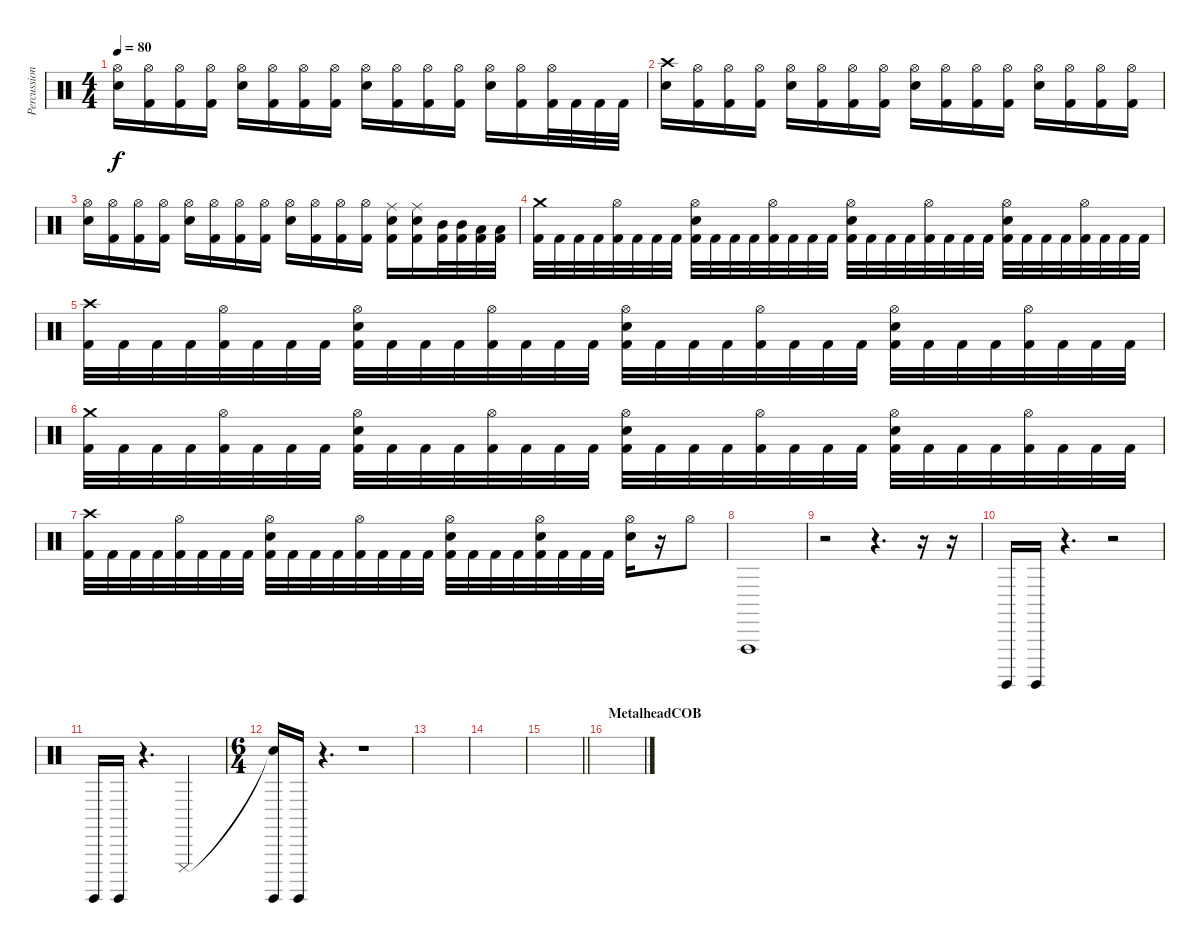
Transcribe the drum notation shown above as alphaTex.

\track ("Percussion" "Percussion") {instrument percussion}
\staff {score}
\articulation defaults
\ts (4 4)
\tempo 80
\clef neutral
\ks c
("Hi-Hat (open)" "Electric Snare (hit)").16{dy f} ("Hi-Hat (open)" "Kick (hit) 2").16 ("Hi-Hat (open)" "Kick (hit) 2").16 ("Hi-Hat (open)" "Kick (hit) 2").16 ("Hi-Hat (open)" "Electric Snare (hit)").16 ("Hi-Hat (open)" "Kick (hit) 2").16 ("Hi-Hat (open)" "Kick (hit) 2").16 ("Hi-Hat (open)" "Kick (hit) 2").16 ("Hi-Hat (open)" "Electric Snare (hit)").16 ("Hi-Hat (open)" "Kick (hit) 2").16 ("Hi-Hat (open)" "Kick (hit) 2").16 ("Hi-Hat (open)" "Kick (hit) 2").16 ("Hi-Hat (open)" "Electric Snare (hit)").16 ("Hi-Hat (open)" "Kick (hit) 2").16 ("Hi-Hat (open)" "Kick (hit) 2").32 "Kick (hit) 2".32 "Kick (hit) 2".32 "Kick (hit) 2".32 |
("Crash high (hit)" "Electric Snare (hit)").16 ("Hi-Hat (open)" "Kick (hit) 2").16 ("Hi-Hat (open)" "Kick (hit) 2").16 ("Hi-Hat (open)" "Kick (hit) 2").16 ("Hi-Hat (open)" "Electric Snare (hit)").16 ("Hi-Hat (open)" "Kick (hit) 2").16 ("Hi-Hat (open)" "Kick (hit) 2").16 ("Hi-Hat (open)" "Kick (hit) 2").16 ("Hi-Hat (open)" "Electric Snare (hit)").16 ("Hi-Hat (open)" "Kick (hit) 2").16 ("Hi-Hat (open)" "Kick (hit) 2").16 ("Hi-Hat (open)" "Kick (hit) 2").16 ("Hi-Hat (open)" "Electric Snare (hit)").16 ("Hi-Hat (open)" "Kick (hit) 2").16 ("Hi-Hat (open)" "Kick (hit) 2").16 ("Hi-Hat (open)" "Kick (hit) 2").16 |
("Hi-Hat (open)" "Electric Snare (hit)").16 ("Hi-Hat (open)" "Kick (hit) 2").16 ("Hi-Hat (open)" "Kick (hit) 2").16 ("Hi-Hat (open)" "Kick (hit) 2").16 ("Hi-Hat (open)" "Electric Snare (hit)").16 ("Hi-Hat (open)" "Kick (hit) 2").16 ("Hi-Hat (open)" "Kick (hit) 2").16 ("Hi-Hat (open)" "Kick (hit) 2").16 ("Hi-Hat (open)" "Electric Snare (hit)").16 ("Hi-Hat (open)" "Kick (hit) 2").16 ("Hi-Hat (open)" "Kick (hit) 2").16 ("Hi-Hat (open)" "Kick (hit) 2").16 ("Ride (middle)" "Electric Snare (hit)" "Kick (hit) 2").16 ("Ride (middle)" "Electric Snare (hit)" "Kick (hit) 2").16 ("Mid Tom (hit)" "Kick (hit) 2").32 ("Mid Tom (hit)" "Kick (hit) 2").32 ("Low Tom (hit)" "Kick (hit) 2").32 ("Low Tom (hit)" "Kick (hit) 2").32 |
("Crash medium (hit)" "Kick (hit) 2").32 "Kick (hit) 2".32 "Kick (hit) 2".32 "Kick (hit) 2".32 ("Hi-Hat (open)" "Kick (hit) 2").32 "Kick (hit) 2".32 "Kick (hit) 2".32 "Kick (hit) 2".32 ("Hi-Hat (open)" "Electric Snare (hit)" "Kick (hit) 2").32 "Kick (hit) 2".32 "Kick (hit) 2".32 "Kick (hit) 2".32 ("Hi-Hat (open)" "Kick (hit) 2").32 "Kick (hit) 2".32 "Kick (hit) 2".32 "Kick (hit) 2".32 ("Hi-Hat (open)" "Electric Snare (hit)" "Kick (hit) 2").32 "Kick (hit) 2".32 "Kick (hit) 2".32 "Kick (hit) 2".32 ("Hi-Hat (open)" "Kick (hit) 2").32 "Kick (hit) 2".32 "Kick (hit) 2".32 "Kick (hit) 2".32 ("Hi-Hat (open)" "Electric Snare (hit)" "Kick (hit) 2").32 "Kick (hit) 2".32 "Kick (hit) 2".32 "Kick (hit) 2".32 ("Hi-Hat (open)" "Kick (hit) 2").32 "Kick (hit) 2".32 "Kick (hit) 2".32 "Kick (hit) 2".32 |
("Crash high (hit)" "Kick (hit) 2").32 "Kick (hit) 2".32 "Kick (hit) 2".32 "Kick (hit) 2".32 ("Hi-Hat (open)" "Kick (hit) 2").32 "Kick (hit) 2".32 "Kick (hit) 2".32 "Kick (hit) 2".32 ("Hi-Hat (open)" "Electric Snare (hit)" "Kick (hit) 2").32 "Kick (hit) 2".32 "Kick (hit) 2".32 "Kick (hit) 2".32 ("Hi-Hat (open)" "Kick (hit) 2").32 "Kick (hit) 2".32 "Kick (hit) 2".32 "Kick (hit) 2".32 ("Hi-Hat (open)" "Electric Snare (hit)" "Kick (hit) 2").32 "Kick (hit) 2".32 "Kick (hit) 2".32 "Kick (hit) 2".32 ("Hi-Hat (open)" "Kick (hit) 2").32 "Kick (hit) 2".32 "Kick (hit) 2".32 "Kick (hit) 2".32 ("Hi-Hat (open)" "Electric Snare (hit)" "Kick (hit) 2").32 "Kick (hit) 2".32 "Kick (hit) 2".32 "Kick (hit) 2".32 ("Hi-Hat (open)" "Kick (hit) 2").32 "Kick (hit) 2".32 "Kick (hit) 2".32 "Kick (hit) 2".32 |
("Crash medium (hit)" "Kick (hit) 2").32 "Kick (hit) 2".32 "Kick (hit) 2".32 "Kick (hit) 2".32 ("Hi-Hat (open)" "Kick (hit) 2").32 "Kick (hit) 2".32 "Kick (hit) 2".32 "Kick (hit) 2".32 ("Hi-Hat (open)" "Electric Snare (hit)" "Kick (hit) 2").32 "Kick (hit) 2".32 "Kick (hit) 2".32 "Kick (hit) 2".32 ("Hi-Hat (open)" "Kick (hit) 2").32 "Kick (hit) 2".32 "Kick (hit) 2".32 "Kick (hit) 2".32 ("Hi-Hat (open)" "Electric Snare (hit)" "Kick (hit) 2").32 "Kick (hit) 2".32 "Kick (hit) 2".32 "Kick (hit) 2".32 ("Hi-Hat (open)" "Kick (hit) 2").32 "Kick (hit) 2".32 "Kick (hit) 2".32 "Kick (hit) 2".32 ("Hi-Hat (open)" "Electric Snare (hit)" "Kick (hit) 2").32 "Kick (hit) 2".32 "Kick (hit) 2".32 "Kick (hit) 2".32 ("Hi-Hat (open)" "Kick (hit) 2").32 "Kick (hit) 2".32 "Kick (hit) 2".32 "Kick (hit) 2".32 |
("Crash high (hit)" "Kick (hit) 2").32 "Kick (hit) 2".32 "Kick (hit) 2".32 "Kick (hit) 2".32 ("Hi-Hat (open)" "Kick (hit) 2").32 "Kick (hit) 2".32 "Kick (hit) 2".32 "Kick (hit) 2".32 ("Hi-Hat (open)" "Electric Snare (hit)" "Kick (hit) 2").32 "Kick (hit) 2".32 "Kick (hit) 2".32 "Kick (hit) 2".32 ("Hi-Hat (open)" "Kick (hit) 2").32 "Kick (hit) 2".32 "Kick (hit) 2".32 "Kick (hit) 2".32 ("Hi-Hat (open)" "Electric Snare (hit)" "Kick (hit) 2").32 "Kick (hit) 2".32 "Kick (hit) 2".32 "Kick (hit) 2".32 ("Hi-Hat (open)" "Electric Snare (hit)" "Kick (hit) 2").32 "Kick (hit) 2".32 "Kick (hit) 2".32 "Kick (hit) 2".32 ("Hi-Hat (open)" "Electric Snare (hit)").16 r.16 "Hi-Hat (open)".8 |
"Vibraslap (hit)".1 |
r.2 r.4{d} r.16 r.16 |
"Surdo (hit)".16 "Surdo (hit)".16 r.4{d} r.2 |
"Surdo (hit)".16 "Surdo (hit)".16 r.4{d} "Cuica (mute)".2 |
\ts (6 4)
("Snare (hit)"{t} "Surdo (hit)").16 "Surdo (hit)".16 r.4{d} r.1 |
|
|
\barLineRight lightlight
|
\section ("" "MetalheadCOB")
